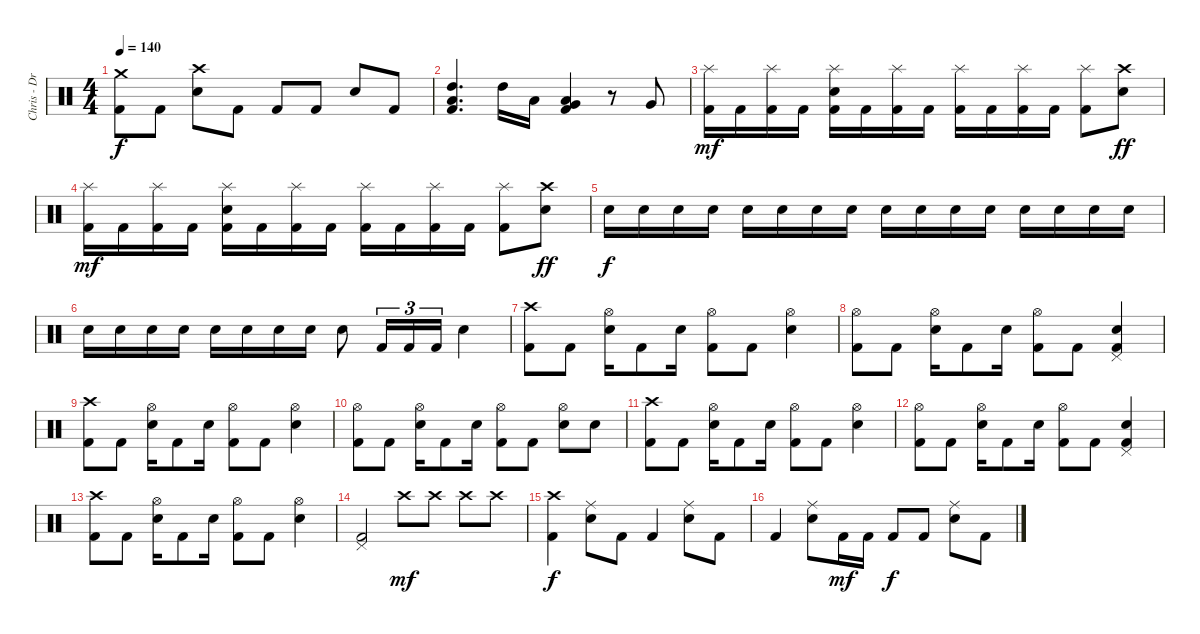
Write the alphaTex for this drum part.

\track ("Chris - Drums" "Chris - Dr") {instrument percussion}
\staff {score}
\articulation defaults
\ts (4 4)
\tempo 140
\clef neutral
\ks c
("Crash medium (hit)" "Kick (hit) 2").8{dy f} "Kick (hit) 2".8 ("Crash high (hit)" "Electric Snare (hit)").8 "Kick (hit) 2".8 "Kick (hit) 2".8 "Kick (hit) 2".8 "Electric Snare (hit)".8 "Kick (hit) 2".8 |
("High Tom (hit)" "Low Tom (hit)" "Kick (hit) 2").4{d} "High Tom (hit)".16 "Low Tom (hit)".16 ("Low Tom (hit)" "Very Low Tom (hit)" "Kick (hit) 2").4 r.8 "Very Low Tom (hit)".8 |
("Splash (hit)" "Kick (hit) 2").16{dy mf} "Kick (hit) 2".16 ("Splash (hit)" "Kick (hit) 2").16 "Kick (hit) 2".16 ("Splash (hit)" "Electric Snare (hit)" "Kick (hit) 2").16 "Kick (hit) 2".16 ("Splash (hit)" "Kick (hit) 2").16 "Kick (hit) 2".16 ("Splash (hit)" "Kick (hit) 2").16 "Kick (hit) 2".16 ("Splash (hit)" "Kick (hit) 2").16 "Kick (hit) 2".16 ("Splash (hit)" "Kick (hit) 2").8 ("Crash high (hit)" "Electric Snare (hit)").8{dy ff} |
("Splash (hit)" "Kick (hit) 2").16{dy mf} "Kick (hit) 2".16 ("Splash (hit)" "Kick (hit) 2").16 "Kick (hit) 2".16 ("Splash (hit)" "Electric Snare (hit)" "Kick (hit) 2").16 "Kick (hit) 2".16 ("Splash (hit)" "Kick (hit) 2").16 "Kick (hit) 2".16 ("Splash (hit)" "Kick (hit) 2").16 "Kick (hit) 2".16 ("Splash (hit)" "Kick (hit) 2").16 "Kick (hit) 2".16 ("Splash (hit)" "Kick (hit) 2").8{volume 11} ("Crash high (hit)" "Electric Snare (hit)").8{dy ff} |
"Electric Snare (hit)".16{dy f volume 14} "Electric Snare (hit)".16 "Electric Snare (hit)".16 "Electric Snare (hit)".16 "Electric Snare (hit)".16 "Electric Snare (hit)".16 "Electric Snare (hit)".16 "Electric Snare (hit)".16 "Electric Snare (hit)".16 "Electric Snare (hit)".16 "Electric Snare (hit)".16 "Electric Snare (hit)".16 "Electric Snare (hit)".16 "Electric Snare (hit)".16 "Electric Snare (hit)".16 "Electric Snare (hit)".16 |
"Electric Snare (hit)".16 "Electric Snare (hit)".16 "Electric Snare (hit)".16 "Electric Snare (hit)".16 "Electric Snare (hit)".16 "Electric Snare (hit)".16 "Electric Snare (hit)".16 "Electric Snare (hit)".16 "Electric Snare (hit)".8 "Kick (hit) 2".16{tu (3 2)} "Kick (hit) 2".16{tu (3 2)} "Kick (hit) 2".16{tu (3 2)} "Electric Snare (hit)".4 |
("Crash high (hit)" "Kick (hit) 2").8 "Kick (hit) 2".8 ("Hi-Hat (open)" "Electric Snare (hit)").16 "Kick (hit) 2".8 "Electric Snare (hit)".16 ("Hi-Hat (open)" "Kick (hit) 2").8 "Kick (hit) 2".8 ("Hi-Hat (open)" "Electric Snare (hit)").4 |
("Hi-Hat (open)" "Kick (hit) 2").8 "Kick (hit) 2".8 ("Hi-Hat (open)" "Electric Snare (hit)").16 "Kick (hit) 2".8 "Electric Snare (hit)".16 ("Hi-Hat (open)" "Kick (hit) 2").8 "Kick (hit) 2".8 ("Pedal Hi-Hat (hit)" "Electric Snare (hit)" "Kick (hit) 2").4 |
("Crash high (hit)" "Kick (hit) 2").8 "Kick (hit) 2".8 ("Hi-Hat (open)" "Electric Snare (hit)").16 "Kick (hit) 2".8 "Electric Snare (hit)".16 ("Hi-Hat (open)" "Kick (hit) 2").8 "Kick (hit) 2".8 ("Hi-Hat (open)" "Electric Snare (hit)").4 |
("Hi-Hat (open)" "Kick (hit) 2").8 "Kick (hit) 2".8 ("Hi-Hat (open)" "Electric Snare (hit)").16 "Kick (hit) 2".8 "Electric Snare (hit)".16 ("Hi-Hat (open)" "Kick (hit) 2").8 "Kick (hit) 2".8 ("Hi-Hat (open)" "Electric Snare (hit)").8 "Electric Snare (hit)".8 |
("Crash high (hit)" "Kick (hit) 2").8 "Kick (hit) 2".8 ("Hi-Hat (open)" "Electric Snare (hit)").16 "Kick (hit) 2".8 "Electric Snare (hit)".16 ("Hi-Hat (open)" "Kick (hit) 2").8 "Kick (hit) 2".8 ("Hi-Hat (open)" "Electric Snare (hit)").4 |
("Hi-Hat (open)" "Kick (hit) 2").8 "Kick (hit) 2".8 ("Hi-Hat (open)" "Electric Snare (hit)").16 "Kick (hit) 2".8 "Electric Snare (hit)".16 ("Hi-Hat (open)" "Kick (hit) 2").8 "Kick (hit) 2".8 ("Pedal Hi-Hat (hit)" "Electric Snare (hit)" "Kick (hit) 2").4 |
("Crash high (hit)" "Kick (hit) 2").8 "Kick (hit) 2".8 ("Hi-Hat (open)" "Electric Snare (hit)").16 "Kick (hit) 2".8 "Electric Snare (hit)".16 ("Hi-Hat (open)" "Kick (hit) 2").8 "Kick (hit) 2".8 ("Hi-Hat (open)" "Electric Snare (hit)").4 |
("Pedal Hi-Hat (hit)" "Kick (hit) 2").2 "Crash high (hit)".8{dy mf} "Crash high (hit)".8 "Crash high (hit)".8 "Crash high (hit)".8 |
("Crash high (hit)" "Kick (hit) 2").4{dy f} ("Ride (middle)" "Electric Snare (hit)").8 "Kick (hit) 2".8 "Kick (hit) 2".4 ("Ride (middle)" "Electric Snare (hit)").8 "Kick (hit) 2".8 |
"Kick (hit) 2".4 ("Ride (middle)" "Electric Snare (hit)").8 "Kick (hit) 2".16{dy mf} "Kick (hit) 2".16 "Kick (hit) 2".8{dy f} "Kick (hit) 2".8 ("Ride (middle)" "Electric Snare (hit)").8 "Kick (hit) 2".8
